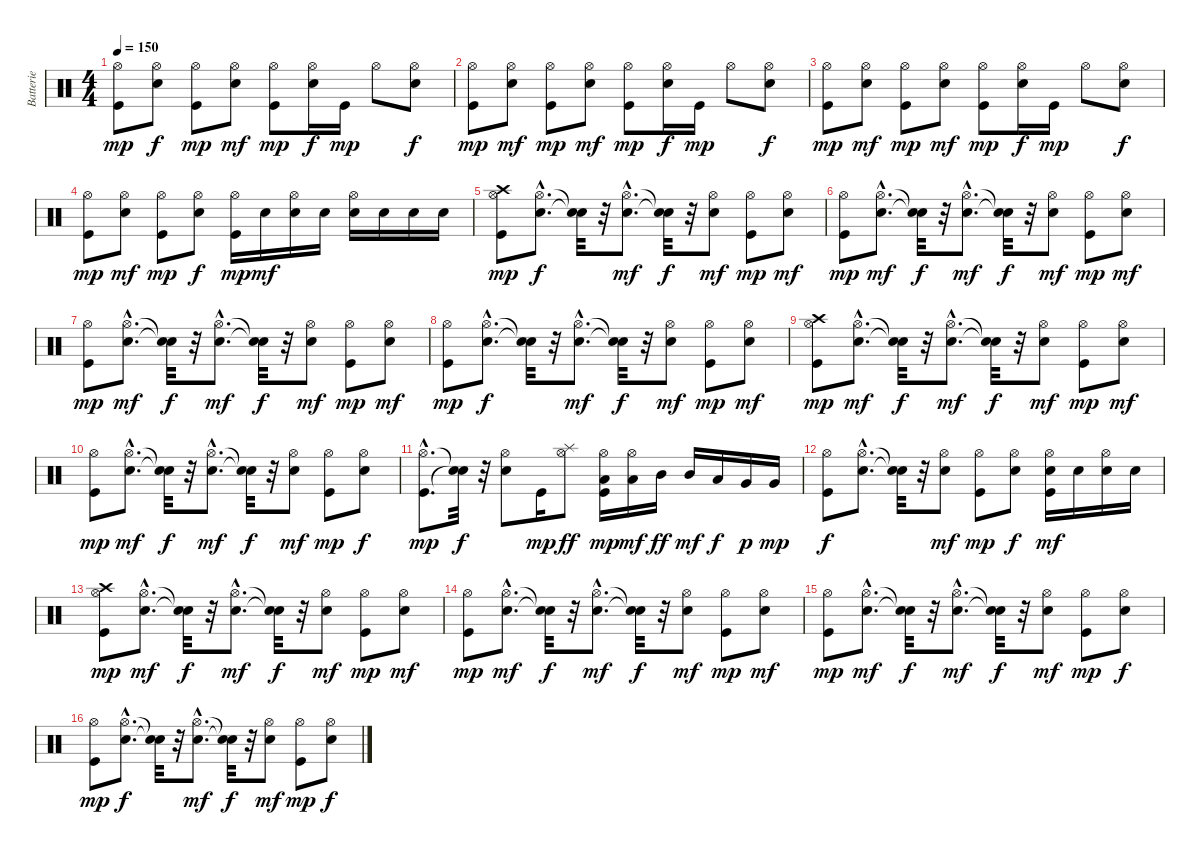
\track ("Batterie" "Batterie") {instrument percussion}
\staff {score}
\articulation defaults
\ts (4 4)
\tempo 150
\clef neutral
\ks c
("Hi-Hat (open)" "Kick (hit)").8{dy mp} ("Hi-Hat (open)" "Snare (hit) 2").8{dy f} ("Hi-Hat (open)" "Kick (hit)").8{dy mp} ("Hi-Hat (open)" "Snare (hit) 2").8{dy mf} ("Hi-Hat (open)" "Kick (hit)").8{dy mp} ("Hi-Hat (open)" "Snare (hit) 2").16{dy f} "Kick (hit)".16{dy mp} "Hi-Hat (open)".8 ("Hi-Hat (open)" "Snare (hit) 2").8{dy f} |
("Hi-Hat (open)" "Kick (hit)").8{dy mp} ("Hi-Hat (open)" "Snare (hit) 2").8{dy mf} ("Hi-Hat (open)" "Kick (hit)").8{dy mp} ("Hi-Hat (open)" "Snare (hit) 2").8{dy mf} ("Hi-Hat (open)" "Kick (hit)").8{dy mp} ("Hi-Hat (open)" "Snare (hit) 2").16{dy f} "Kick (hit)".16{dy mp} "Hi-Hat (open)".8 ("Hi-Hat (open)" "Snare (hit) 2").8{dy f} |
("Hi-Hat (open)" "Kick (hit)").8{dy mp} ("Hi-Hat (open)" "Snare (hit) 2").8{dy mf} ("Hi-Hat (open)" "Kick (hit)").8{dy mp} ("Hi-Hat (open)" "Snare (hit) 2").8{dy mf} ("Hi-Hat (open)" "Kick (hit)").8{dy mp} ("Hi-Hat (open)" "Snare (hit) 2").16{dy f} "Kick (hit)".16{dy mp} "Hi-Hat (open)".8 ("Hi-Hat (open)" "Snare (hit) 2").8{dy f} |
("Hi-Hat (open)" "Kick (hit)").8{dy mp} ("Hi-Hat (open)" "Snare (hit) 2").8{dy mf} ("Hi-Hat (open)" "Kick (hit)").8{dy mp} ("Hi-Hat (open)" "Snare (hit) 2").8{dy f} ("Hi-Hat (open)" "Kick (hit)").16{dy mp} "Snare (hit) 2".16{dy mf} ("Hi-Hat (open)" "Snare (hit) 2").16 "Snare (hit) 2".16 ("Hi-Hat (open)" "Snare (hit) 2").16 "Snare (hit) 2".16 "Snare (hit) 2".16 "Snare (hit) 2".16 |
("Hi-Hat (open)" "Crash high (hit)" "Kick (hit)").8{dy mp} ("Hi-Hat (open)"{hac} "Snare (hit) 2"{hac}).8{d dy f} ("Snare (hit)"{t} "Snare (hit)"{t}).32 r.32 ("Hi-Hat (open)"{hac} "Snare (hit) 2"{hac}).8{d dy mf} ("Snare (hit)"{t} "Snare (hit)"{t}).32{dy f} r.32 ("Hi-Hat (open)" "Snare (hit) 2").8{dy mf} ("Hi-Hat (open)" "Kick (hit)").8{dy mp} ("Hi-Hat (open)" "Snare (hit) 2").8{dy mf} |
("Hi-Hat (open)" "Kick (hit)").8{dy mp} ("Hi-Hat (open)"{hac} "Snare (hit) 2"{hac}).8{d dy mf} ("Snare (hit)"{t} "Snare (hit)"{t}).32{dy f} r.32 ("Hi-Hat (open)"{hac} "Snare (hit) 2"{hac}).8{d dy mf} ("Snare (hit)"{t} "Snare (hit)"{t}).32{dy f} r.32 ("Hi-Hat (open)" "Snare (hit) 2").8{dy mf} ("Hi-Hat (open)" "Kick (hit)").8{dy mp} ("Hi-Hat (open)" "Snare (hit) 2").8{dy mf} |
("Hi-Hat (open)" "Kick (hit)").8{dy mp} ("Hi-Hat (open)"{hac} "Snare (hit) 2"{hac}).8{d dy mf} ("Snare (hit)"{t} "Snare (hit)"{t}).32{dy f} r.32 ("Hi-Hat (open)"{hac} "Snare (hit) 2"{hac}).8{d dy mf} ("Snare (hit)"{t} "Snare (hit)"{t}).32{dy f} r.32 ("Hi-Hat (open)" "Snare (hit) 2").8{dy mf} ("Hi-Hat (open)" "Kick (hit)").8{dy mp} ("Hi-Hat (open)" "Snare (hit) 2").8{dy mf} |
("Hi-Hat (open)" "Kick (hit)").8{dy mp} ("Hi-Hat (open)"{hac} "Snare (hit) 2"{hac}).8{d dy f} ("Snare (hit)"{t} "Snare (hit)"{t}).32 r.32 ("Hi-Hat (open)"{hac} "Snare (hit) 2"{hac}).8{d dy mf} ("Snare (hit)"{t} "Snare (hit)"{t}).32{dy f} r.32 ("Hi-Hat (open)" "Snare (hit) 2").8{dy mf} ("Hi-Hat (open)" "Kick (hit)").8{dy mp} ("Hi-Hat (open)" "Snare (hit) 2").8{dy mf} |
("Hi-Hat (open)" "Crash high (hit)" "Kick (hit)").8{dy mp} ("Hi-Hat (open)"{hac} "Snare (hit) 2"{hac}).8{d dy mf} ("Snare (hit)"{t} "Snare (hit)"{t}).32{dy f} r.32 ("Hi-Hat (open)"{hac} "Snare (hit) 2"{hac}).8{d dy mf} ("Snare (hit)"{t} "Snare (hit)"{t}).32{dy f} r.32 ("Hi-Hat (open)" "Snare (hit) 2").8{dy mf} ("Hi-Hat (open)" "Kick (hit)").8{dy mp} ("Hi-Hat (open)" "Snare (hit) 2").8{dy mf} |
("Hi-Hat (open)" "Kick (hit)").8{dy mp} ("Hi-Hat (open)"{hac} "Snare (hit) 2"{hac}).8{d dy mf} ("Snare (hit)"{t} "Snare (hit)"{t}).32{dy f} r.32 ("Hi-Hat (open)"{hac} "Snare (hit) 2"{hac}).8{d dy mf} ("Snare (hit)"{t} "Snare (hit)"{t}).32{dy f} r.32 ("Hi-Hat (open)" "Snare (hit) 2").8{dy mf} ("Hi-Hat (open)" "Kick (hit)").8{dy mp} ("Hi-Hat (open)" "Snare (hit) 2").8{dy f} |
("Hi-Hat (open)"{hac} "Kick (hit)"{hac}).8{d dy mp} ("Snare (hit)"{t} "Snare (hit)"{t}).32{dy f} r.32 ("Hi-Hat (open)" "Snare (hit) 2").8 "Kick (hit)".16{dy mp} ("Hi-Hat (open)" "Splash (hit)").8{dy ff} ("Hi-Hat (open)" "Kick (hit)" "Low Tom (hit)").16{dy mp} ("Hi-Hat (open)" "Low Tom (hit)").16{dy mf} "Mid Tom (hit)".16{dy ff} "Mid Tom (hit)".16{dy mf} "Low Tom (hit)".16{dy f} "Very Low Tom (hit)".16{dy p} "Very Low Tom (hit)".16{dy mp} |
("Hi-Hat (open)" "Kick (hit)").8{dy f} ("Hi-Hat (open)"{hac} "Snare (hit) 2"{hac}).8{d} ("Snare (hit)"{t} "Snare (hit)"{t}).32 r.32 ("Hi-Hat (open)" "Snare (hit) 2").8{dy mf} ("Hi-Hat (open)" "Kick (hit)").8{dy mp} ("Hi-Hat (open)" "Snare (hit) 2").8{dy f} ("Hi-Hat (open)" "Kick (hit)" "Snare (hit) 2").16{dy mf} "Snare (hit) 2".16 ("Hi-Hat (open)" "Snare (hit) 2").16 "Snare (hit) 2".16 |
("Hi-Hat (open)" "Crash high (hit)" "Kick (hit)").8{dy mp} ("Hi-Hat (open)"{hac} "Snare (hit) 2"{hac}).8{d dy mf} ("Snare (hit)"{t} "Snare (hit)"{t}).32{dy f} r.32 ("Hi-Hat (open)"{hac} "Snare (hit) 2"{hac}).8{d dy mf} ("Snare (hit)"{t} "Snare (hit)"{t}).32{dy f} r.32 ("Hi-Hat (open)" "Snare (hit) 2").8{dy mf} ("Hi-Hat (open)" "Kick (hit)").8{dy mp} ("Hi-Hat (open)" "Snare (hit) 2").8{dy mf} |
("Hi-Hat (open)" "Kick (hit)").8{dy mp} ("Hi-Hat (open)"{hac} "Snare (hit) 2"{hac}).8{d dy mf} ("Snare (hit)"{t} "Snare (hit)"{t}).32{dy f} r.32 ("Hi-Hat (open)"{hac} "Snare (hit) 2"{hac}).8{d dy mf} ("Snare (hit)"{t} "Snare (hit)"{t}).32{dy f} r.32 ("Hi-Hat (open)" "Snare (hit) 2").8{dy mf} ("Hi-Hat (open)" "Kick (hit)").8{dy mp} ("Hi-Hat (open)" "Snare (hit) 2").8{dy mf} |
("Hi-Hat (open)" "Kick (hit)").8{dy mp} ("Hi-Hat (open)"{hac} "Snare (hit) 2"{hac}).8{d dy mf} ("Snare (hit)"{t} "Snare (hit)"{t}).32{dy f} r.32 ("Hi-Hat (open)"{hac} "Snare (hit) 2"{hac}).8{d dy mf} ("Snare (hit)"{t} "Snare (hit)"{t}).32{dy f} r.32 ("Hi-Hat (open)" "Snare (hit) 2").8{dy mf} ("Hi-Hat (open)" "Kick (hit)").8{dy mp} ("Hi-Hat (open)" "Snare (hit) 2").8{dy f} |
("Hi-Hat (open)" "Kick (hit)").8{dy mp} ("Hi-Hat (open)"{hac} "Snare (hit) 2"{hac}).8{d dy f} ("Snare (hit)"{t} "Snare (hit)"{t}).32 r.32 ("Hi-Hat (open)"{hac} "Snare (hit) 2"{hac}).8{d dy mf} ("Snare (hit)"{t} "Snare (hit)"{t}).32{dy f} r.32 ("Hi-Hat (open)" "Snare (hit) 2").8{dy mf} ("Hi-Hat (open)" "Kick (hit)").8{dy mp} ("Hi-Hat (open)" "Snare (hit) 2").8{dy f}
